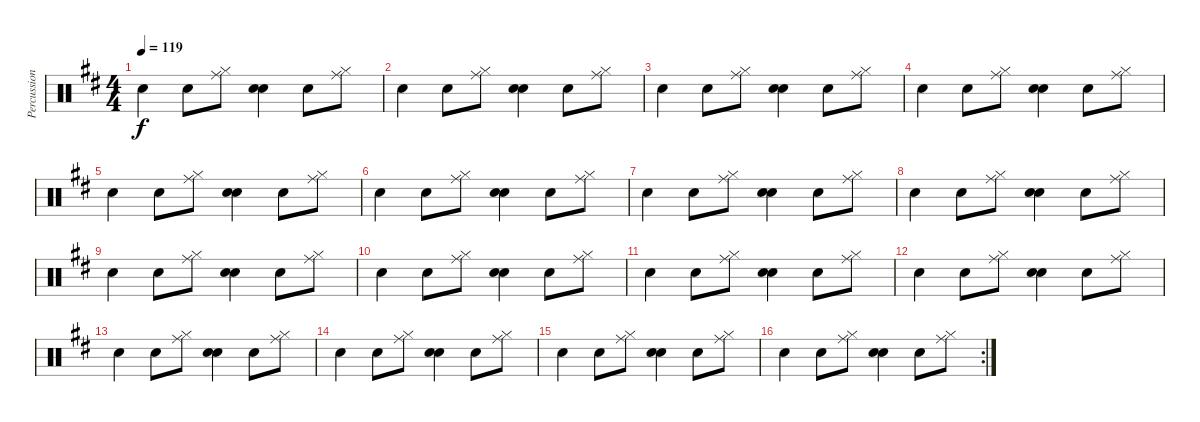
\track ("Percussion" "Percussion") {instrument percussion}
\staff {score}
\articulation defaults
\ts (4 4)
\tempo 119
\clef neutral
\ks d "Electric Snare (hit)".4{dy f} "Electric Snare (hit)".8
("Hi-Hat (closed)" "Ride (middle)").8 ("Electric Snare (hit)" "Electric Snare (hit)").4 "Electric Snare (hit)".8 ("Ride (middle)" "Hi-Hat (closed)").8 |
"Electric Snare (hit)".4 "Electric Snare (hit)".8 ("Hi-Hat (closed)" "Ride (middle)").8 ("Electric Snare (hit)" "Electric Snare (hit)").4 "Electric Snare (hit)".8 ("Ride (middle)" "Hi-Hat (closed)").8 |
"Electric Snare (hit)".4 "Electric Snare (hit)".8 ("Hi-Hat (closed)" "Ride (middle)").8 ("Electric Snare (hit)" "Electric Snare (hit)").4 "Electric Snare (hit)".8 ("Ride (middle)" "Hi-Hat (closed)").8 |
"Electric Snare (hit)".4 "Electric Snare (hit)".8 ("Hi-Hat (closed)" "Ride (middle)").8 ("Electric Snare (hit)" "Electric Snare (hit)").4 "Electric Snare (hit)".8 ("Ride (middle)" "Hi-Hat (closed)").8 |
"Electric Snare (hit)".4 "Electric Snare (hit)".8 ("Hi-Hat (closed)" "Ride (middle)").8 ("Electric Snare (hit)" "Electric Snare (hit)").4 "Electric Snare (hit)".8 ("Ride (middle)" "Hi-Hat (closed)").8 |
"Electric Snare (hit)".4 "Electric Snare (hit)".8 ("Hi-Hat (closed)" "Ride (middle)").8 ("Electric Snare (hit)" "Electric Snare (hit)").4 "Electric Snare (hit)".8 ("Ride (middle)" "Hi-Hat (closed)").8 |
"Electric Snare (hit)".4 "Electric Snare (hit)".8 ("Hi-Hat (closed)" "Ride (middle)").8 ("Electric Snare (hit)" "Electric Snare (hit)").4 "Electric Snare (hit)".8 ("Ride (middle)" "Hi-Hat (closed)").8 |
"Electric Snare (hit)".4 "Electric Snare (hit)".8 ("Hi-Hat (closed)" "Ride (middle)").8 ("Electric Snare (hit)" "Electric Snare (hit)").4 "Electric Snare (hit)".8 ("Ride (middle)" "Hi-Hat (closed)").8 |
"Electric Snare (hit)".4 "Electric Snare (hit)".8 ("Hi-Hat (closed)" "Ride (middle)").8 ("Electric Snare (hit)" "Electric Snare (hit)").4 "Electric Snare (hit)".8 ("Ride (middle)" "Hi-Hat (closed)").8 |
"Electric Snare (hit)".4 "Electric Snare (hit)".8 ("Hi-Hat (closed)" "Ride (middle)").8 ("Electric Snare (hit)" "Electric Snare (hit)").4 "Electric Snare (hit)".8 ("Ride (middle)" "Hi-Hat (closed)").8 |
"Electric Snare (hit)".4 "Electric Snare (hit)".8 ("Hi-Hat (closed)" "Ride (middle)").8 ("Electric Snare (hit)" "Electric Snare (hit)").4 "Electric Snare (hit)".8 ("Ride (middle)" "Hi-Hat (closed)").8 |
"Electric Snare (hit)".4 "Electric Snare (hit)".8 ("Hi-Hat (closed)" "Ride (middle)").8 ("Electric Snare (hit)" "Electric Snare (hit)").4 "Electric Snare (hit)".8 ("Ride (middle)" "Hi-Hat (closed)").8 |
"Electric Snare (hit)".4 "Electric Snare (hit)".8 ("Hi-Hat (closed)" "Ride (middle)").8 ("Electric Snare (hit)" "Electric Snare (hit)").4 "Electric Snare (hit)".8 ("Ride (middle)" "Hi-Hat (closed)").8 |
"Electric Snare (hit)".4 "Electric Snare (hit)".8 ("Hi-Hat (closed)" "Ride (middle)").8 ("Electric Snare (hit)" "Electric Snare (hit)").4 "Electric Snare (hit)".8 ("Ride (middle)" "Hi-Hat (closed)").8 |
"Electric Snare (hit)".4 "Electric Snare (hit)".8 ("Hi-Hat (closed)" "Ride (middle)").8 ("Electric Snare (hit)" "Electric Snare (hit)").4 "Electric Snare (hit)".8 ("Ride (middle)" "Hi-Hat (closed)").8 |
\rc 2 "Electric Snare (hit)".4 "Electric Snare (hit)".8
("Hi-Hat (closed)" "Ride (middle)").8 ("Electric Snare (hit)" "Electric Snare (hit)").4 "Electric Snare (hit)".8 ("Ride (middle)" "Hi-Hat (closed)").8
